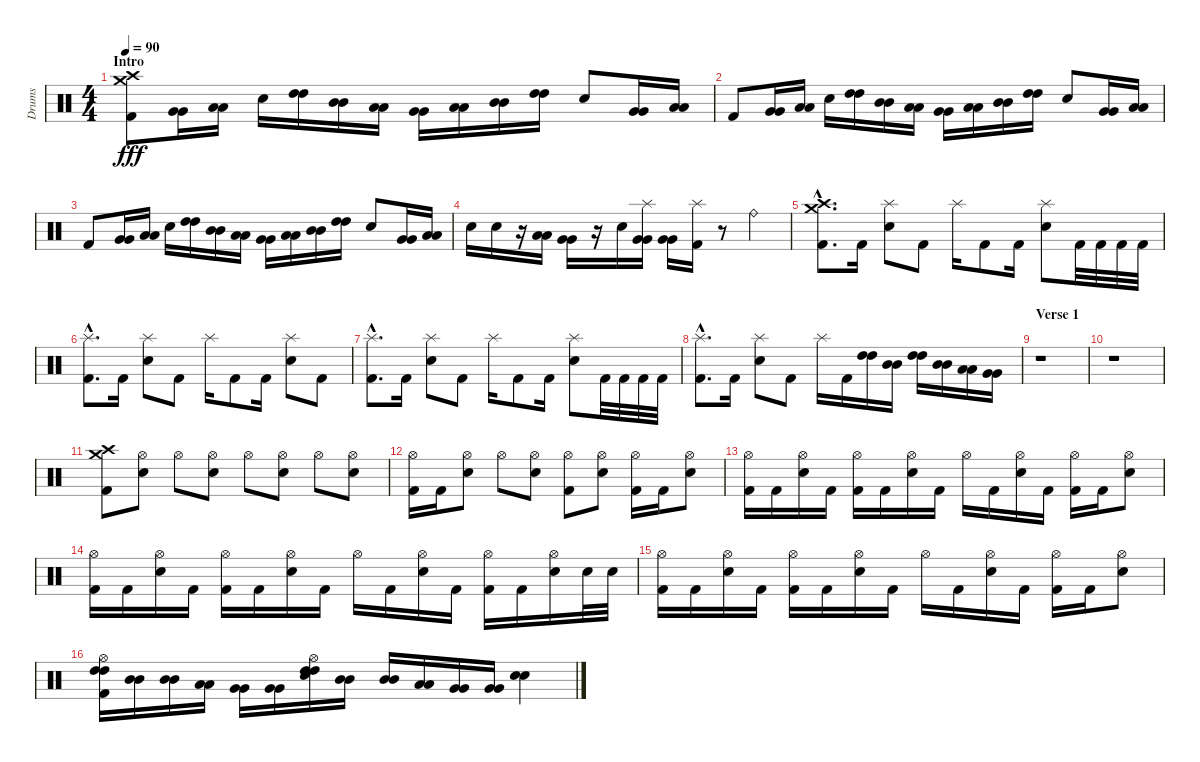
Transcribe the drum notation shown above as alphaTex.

\track ("Drums" "Drums") {instrument percussion}
\staff {score}
\articulation defaults
\ts (4 4)
\section ("" "Intro")
\tempo 90
\clef neutral
\ks c
("Crash high (hit)" "Crash medium (hit)" "Kick (hit) 2").8{dy fff} ("Very Low Tom (hit)" "Very Low Tom (hit)").16 ("Low Tom (hit)" "Low Tom (hit)").16 "Electric Snare (hit)".16 ("High Tom (hit)" "High Tom (hit)").16 ("Mid Tom (hit)" "Mid Tom (hit)").16 ("Low Tom (hit)" "Low Tom (hit)").16 ("Very Low Tom (hit)" "Very Low Tom (hit)").16 ("Low Tom (hit)" "Low Tom (hit)").16 ("Mid Tom (hit)" "Mid Tom (hit)").16 ("High Tom (hit)" "High Tom (hit)").16 "Electric Snare (hit)".8 ("Very Low Tom (hit)" "Very Low Tom (hit)").16 ("Low Tom (hit)" "Low Tom (hit)").16 |
"Kick (hit) 2".8 ("Very Low Tom (hit)" "Very Low Tom (hit)").16 ("Low Tom (hit)" "Low Tom (hit)").16 "Electric Snare (hit)".16 ("High Tom (hit)" "High Tom (hit)").16 ("Mid Tom (hit)" "Mid Tom (hit)").16 ("Low Tom (hit)" "Low Tom (hit)").16 ("Very Low Tom (hit)" "Very Low Tom (hit)").16 ("Low Tom (hit)" "Low Tom (hit)").16 ("Mid Tom (hit)" "Mid Tom (hit)").16 ("High Tom (hit)" "High Tom (hit)").16 "Electric Snare (hit)".8 ("Very Low Tom (hit)" "Very Low Tom (hit)").16 ("Low Tom (hit)" "Low Tom (hit)").16 |
"Kick (hit) 2".8 ("Very Low Tom (hit)" "Very Low Tom (hit)").16 ("Low Tom (hit)" "Low Tom (hit)").16 "Electric Snare (hit)".16 ("High Tom (hit)" "High Tom (hit)").16 ("Mid Tom (hit)" "Mid Tom (hit)").16 ("Low Tom (hit)" "Low Tom (hit)").16 ("Very Low Tom (hit)" "Very Low Tom (hit)").16 ("Low Tom (hit)" "Low Tom (hit)").16 ("Mid Tom (hit)" "Mid Tom (hit)").16 ("High Tom (hit)" "High Tom (hit)").16 "Electric Snare (hit)".8 ("Very Low Tom (hit)" "Very Low Tom (hit)").16 ("Low Tom (hit)" "Low Tom (hit)").16 |
"Electric Snare (hit)".16 "Electric Snare (hit)".16 r.16 ("Low Tom (hit)" "Low Tom (hit)").16 ("Very Low Tom (hit)" "Very Low Tom (hit)").16 r.16 "Electric Snare (hit)".16 ("Very Low Tom (hit)" "Very Low Tom (hit)" "Splash (hit)").16 ("Very Low Tom (hit)" "Very Low Tom (hit)").16 ("Splash (hit)" "Kick (hit) 2").16 r.8 "Ride (bell)".4 |
("Crash high (hit)"{hac} "Crash medium (hit)"{hac} "Kick (hit) 2"{hac}).8{d} "Kick (hit) 2".16 ("Splash (hit)" "Electric Snare (hit)").8 "Kick (hit) 2".8 "Splash (hit)".16 "Kick (hit) 2".8 "Kick (hit) 2".16 ("Splash (hit)" "Electric Snare (hit)").8 "Kick (hit) 2".32 "Kick (hit) 2".32 "Kick (hit) 2".32 "Kick (hit) 2".32 |
("Splash (hit)"{hac} "Kick (hit) 2"{hac}).8{d} "Kick (hit) 2".16 ("Splash (hit)" "Electric Snare (hit)").8 "Kick (hit) 2".8 "Splash (hit)".16 "Kick (hit) 2".8 "Kick (hit) 2".16 ("Splash (hit)" "Electric Snare (hit)").8 "Kick (hit) 2".8 |
("Splash (hit)"{hac} "Kick (hit) 2"{hac}).8{d} "Kick (hit) 2".16 ("Splash (hit)" "Electric Snare (hit)").8 "Kick (hit) 2".8 "Splash (hit)".16 "Kick (hit) 2".8 "Kick (hit) 2".16 ("Splash (hit)" "Electric Snare (hit)").8 "Kick (hit) 2".32 "Kick (hit) 2".32 "Kick (hit) 2".32 "Kick (hit) 2".32 |
("Splash (hit)"{hac} "Kick (hit) 2"{hac}).8{d} "Kick (hit) 2".16 ("Splash (hit)" "Electric Snare (hit)").8 "Kick (hit) 2".8 "Splash (hit)".16 "Kick (hit) 2".16 ("High Tom (hit)" "High Tom (hit)").16 ("Mid Tom (hit)" "Mid Tom (hit)").16 ("High Tom (hit)" "High Tom (hit)").16 ("Mid Tom (hit)" "Mid Tom (hit)").16 ("Low Tom (hit)" "Low Tom (hit)").16 ("Very Low Tom (hit)" "Very Low Tom (hit)").16 |
\section ("" "Verse 1")
r.1 |
r.1 |
("Crash high (hit)" "Crash medium (hit)" "Kick (hit) 2").8 ("Hi-Hat (open)" "Electric Snare (hit)").8 "Hi-Hat (open)".8 ("Hi-Hat (open)" "Electric Snare (hit)").8 "Hi-Hat (open)".8 ("Hi-Hat (open)" "Electric Snare (hit)").8 "Hi-Hat (open)".8 ("Hi-Hat (open)" "Electric Snare (hit)").8 |
("Hi-Hat (open)" "Kick (hit) 2").16 "Kick (hit) 2".16 ("Hi-Hat (open)" "Electric Snare (hit)").8 "Hi-Hat (open)".8 ("Hi-Hat (open)" "Electric Snare (hit)").8 ("Hi-Hat (open)" "Kick (hit) 2").8 ("Hi-Hat (open)" "Electric Snare (hit)").8 ("Hi-Hat (open)" "Kick (hit) 2").16 "Kick (hit) 2".16 ("Hi-Hat (open)" "Electric Snare (hit)").8 |
("Hi-Hat (open)" "Kick (hit) 2").16 "Kick (hit) 2".16 ("Hi-Hat (open)" "Electric Snare (hit)").16 "Kick (hit) 2".16 ("Hi-Hat (open)" "Kick (hit) 2").16 "Kick (hit) 2".16 ("Hi-Hat (open)" "Electric Snare (hit)").16 "Kick (hit) 2".16 "Hi-Hat (open)".16 "Kick (hit) 2".16 ("Hi-Hat (open)" "Electric Snare (hit)").16 "Kick (hit) 2".16 ("Hi-Hat (open)" "Kick (hit) 2").16 "Kick (hit) 2".16 ("Hi-Hat (open)" "Electric Snare (hit)").8 |
("Hi-Hat (open)" "Kick (hit) 2").16 "Kick (hit) 2".16 ("Hi-Hat (open)" "Electric Snare (hit)").16 "Kick (hit) 2".16 ("Hi-Hat (open)" "Kick (hit) 2").16 "Kick (hit) 2".16 ("Hi-Hat (open)" "Electric Snare (hit)").16 "Kick (hit) 2".16 "Hi-Hat (open)".16 "Kick (hit) 2".16 ("Hi-Hat (open)" "Electric Snare (hit)").16 "Kick (hit) 2".16 ("Hi-Hat (open)" "Kick (hit) 2").16 "Kick (hit) 2".16 ("Hi-Hat (open)" "Electric Snare (hit)").16 "Electric Snare (hit)".32 "Electric Snare (hit)".32 |
("Hi-Hat (open)" "Kick (hit) 2").16 "Kick (hit) 2".16 ("Hi-Hat (open)" "Electric Snare (hit)").16 "Kick (hit) 2".16 ("Hi-Hat (open)" "Kick (hit) 2").16 "Kick (hit) 2".16 ("Hi-Hat (open)" "Electric Snare (hit)").16 "Kick (hit) 2".16 "Hi-Hat (open)".16 "Kick (hit) 2".16 ("Hi-Hat (open)" "Electric Snare (hit)").16 "Kick (hit) 2".16 ("Hi-Hat (open)" "Kick (hit) 2").16 "Kick (hit) 2".16 ("Hi-Hat (open)" "Electric Snare (hit)").8 |
("High Tom (hit)" "High Tom (hit)" "Hi-Hat (open)" "Kick (hit) 2").16 ("Mid Tom (hit)" "Mid Tom (hit)").16 ("Mid Tom (hit)" "Mid Tom (hit)").16 ("Low Tom (hit)" "Low Tom (hit)").16 ("Very Low Tom (hit)" "Very Low Tom (hit)").16 ("Very Low Tom (hit)" "Very Low Tom (hit)").16 ("High Tom (hit)" "High Tom (hit)" "Hi-Hat (open)" "Electric Snare (hit)").16 ("Mid Tom (hit)" "Mid Tom (hit)").16 ("Mid Tom (hit)" "Mid Tom (hit)").16 ("Low Tom (hit)" "Low Tom (hit)").16 ("Very Low Tom (hit)" "Very Low Tom (hit)").16 ("Very Low Tom (hit)" "Very Low Tom (hit)").16 ("Electric Snare (hit)" "Electric Snare (hit)").4
